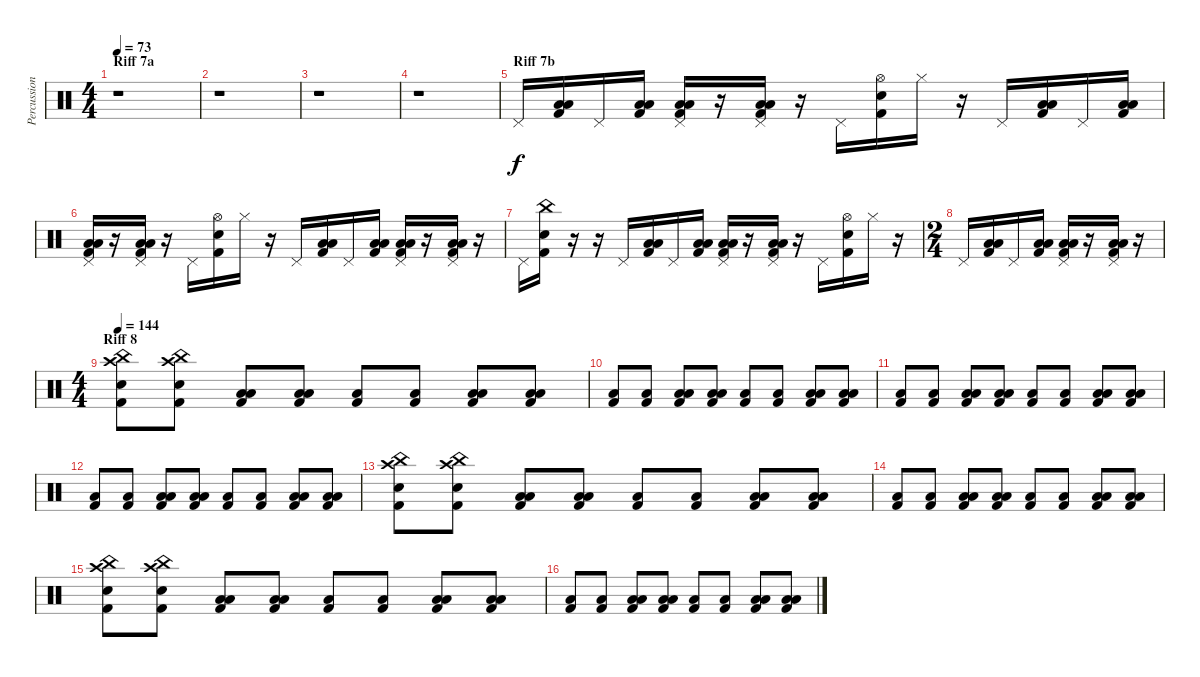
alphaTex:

\track ("Percussion" "Percussion") {instrument percussion}
\staff {score}
\articulation defaults
\ts (4 4)
\section ("" "Riff 7a")
\tempo 73
\clef neutral
\ks c
r.1{dy f} |
r.1 |
r.1 |
r.1 |
\section ("" "Riff 7b")
"Pedal Hi-Hat (hit)".16 ("Low Tom (hit)" "Low Floor Tom (hit)" "Kick (hit) 2").16 "Pedal Hi-Hat (hit)".16 ("Low Tom (hit)" "Low Floor Tom (hit)" "Kick (hit) 2").16 ("Pedal Hi-Hat (hit)" "Low Tom (hit)" "Low Floor Tom (hit)" "Kick (hit) 2").16 r.16 ("Pedal Hi-Hat (hit)" "Low Floor Tom (hit)" "Low Floor Tom (hit)" "Kick (hit) 2").16 r.16 "Pedal Hi-Hat (hit)".16 ("Hi-Hat (open)" "Electric Snare (hit)" "Kick (hit) 2").16 "Hi-Hat (closed)".16 r.16 "Pedal Hi-Hat (hit)".16 ("Low Tom (hit)" "Low Floor Tom (hit)" "Kick (hit) 2").16 "Pedal Hi-Hat (hit)".16 ("Low Floor Tom (hit)" "Low Floor Tom (hit)" "Kick (hit) 2").16 |
("Pedal Hi-Hat (hit)" "Low Tom (hit)" "Low Floor Tom (hit)" "Kick (hit) 2").16 r.16 ("Pedal Hi-Hat (hit)" "Low Tom (hit)" "Low Floor Tom (hit)" "Kick (hit) 2").16 r.16 "Pedal Hi-Hat (hit)".16 ("Hi-Hat (open)" "Electric Snare (hit)" "Kick (hit) 2").16 "Hi-Hat (closed)".16 r.16 "Pedal Hi-Hat (hit)".16 ("Low Tom (hit)" "Low Floor Tom (hit)" "Kick (hit) 2").16 "Pedal Hi-Hat (hit)".16 ("Low Tom (hit)" "Low Floor Tom (hit)" "Kick (hit) 2").16 ("Pedal Hi-Hat (hit)" "Low Tom (hit)" "Low Floor Tom (hit)" "Kick (hit) 2").16 r.16 ("Pedal Hi-Hat (hit)" "Low Tom (hit)" "Low Floor Tom (hit)" "Kick (hit) 2").16 r.16 |
"Pedal Hi-Hat (hit)".16 ("China (hit)" "Electric Snare (hit)" "Kick (hit) 2").16 r.16 r.16 "Pedal Hi-Hat (hit)".16 ("Low Tom (hit)" "Low Floor Tom (hit)" "Kick (hit) 2").16 "Pedal Hi-Hat (hit)".16 ("Low Tom (hit)" "Low Floor Tom (hit)" "Kick (hit) 2").16 ("Pedal Hi-Hat (hit)" "Low Tom (hit)" "Low Floor Tom (hit)" "Kick (hit) 2").16 r.16 ("Pedal Hi-Hat (hit)" "Low Tom (hit)" "Low Floor Tom (hit)" "Kick (hit) 2").16 r.16 "Pedal Hi-Hat (hit)".16 ("Hi-Hat (open)" "Electric Snare (hit)" "Kick (hit) 2").16 "Hi-Hat (closed)".16 r.16 |
\ts (2 4)
"Pedal Hi-Hat (hit)".16 ("Low Tom (hit)" "Low Floor Tom (hit)" "Kick (hit) 2").16 "Pedal Hi-Hat (hit)".16 ("Low Tom (hit)" "Low Floor Tom (hit)" "Kick (hit) 2").16 ("Pedal Hi-Hat (hit)" "Low Tom (hit)" "Low Floor Tom (hit)" "Kick (hit) 2").16 r.16 ("Pedal Hi-Hat (hit)" "Low Tom (hit)" "Low Floor Tom (hit)" "Kick (hit) 2").16 r.16 |
\ts (4 4)
\section ("" "Riff 8")
\tempo 144
("China (hit)" "Crash high (hit)" "Electric Snare (hit)" "Kick (hit) 2").8 ("China (hit)" "Crash high (hit)" "Electric Snare (hit)" "Kick (hit) 2").8 ("Low Tom (hit)" "Low Floor Tom (hit)" "Kick (hit) 2").8 ("Low Tom (hit)" "Low Floor Tom (hit)" "Kick (hit) 2").8 ("Low Floor Tom (hit)" "Kick (hit) 2").8 ("Low Floor Tom (hit)" "Kick (hit) 2").8 ("Low Tom (hit)" "Low Floor Tom (hit)" "Kick (hit) 2").8 ("Low Tom (hit)" "Low Floor Tom (hit)" "Kick (hit) 2").8 |
("Low Floor Tom (hit)" "Kick (hit) 2").8 ("Low Floor Tom (hit)" "Kick (hit) 2").8 ("Low Tom (hit)" "Low Floor Tom (hit)" "Kick (hit) 2").8 ("Low Tom (hit)" "Low Floor Tom (hit)" "Kick (hit) 2").8 ("Low Floor Tom (hit)" "Kick (hit) 2").8 ("Low Floor Tom (hit)" "Kick (hit) 2").8 ("Low Tom (hit)" "Low Floor Tom (hit)" "Kick (hit) 2").8 ("Low Tom (hit)" "Low Floor Tom (hit)" "Kick (hit) 2").8 |
("Low Floor Tom (hit)" "Kick (hit) 2").8 ("Low Floor Tom (hit)" "Kick (hit) 2").8 ("Low Tom (hit)" "Low Floor Tom (hit)" "Kick (hit) 2").8 ("Low Tom (hit)" "Low Floor Tom (hit)" "Kick (hit) 2").8 ("Low Floor Tom (hit)" "Kick (hit) 2").8 ("Low Floor Tom (hit)" "Kick (hit) 2").8 ("Low Tom (hit)" "Low Floor Tom (hit)" "Kick (hit) 2").8 ("Low Tom (hit)" "Low Floor Tom (hit)" "Kick (hit) 2").8 |
("Low Floor Tom (hit)" "Kick (hit) 2").8 ("Low Floor Tom (hit)" "Kick (hit) 2").8 ("Low Tom (hit)" "Low Floor Tom (hit)" "Kick (hit) 2").8 ("Low Tom (hit)" "Low Floor Tom (hit)" "Kick (hit) 2").8 ("Low Floor Tom (hit)" "Kick (hit) 2").8 ("Low Floor Tom (hit)" "Kick (hit) 2").8 ("Low Tom (hit)" "Low Floor Tom (hit)" "Kick (hit) 2").8 ("Low Tom (hit)" "Low Floor Tom (hit)" "Kick (hit) 2").8 |
("China (hit)" "Crash high (hit)" "Electric Snare (hit)" "Kick (hit) 2").8 ("China (hit)" "Crash high (hit)" "Electric Snare (hit)" "Kick (hit) 2").8 ("Low Tom (hit)" "Low Floor Tom (hit)" "Kick (hit) 2").8 ("Low Tom (hit)" "Low Floor Tom (hit)" "Kick (hit) 2").8 ("Low Floor Tom (hit)" "Kick (hit) 2").8 ("Low Floor Tom (hit)" "Kick (hit) 2").8 ("Low Tom (hit)" "Low Floor Tom (hit)" "Kick (hit) 2").8 ("Low Tom (hit)" "Low Floor Tom (hit)" "Kick (hit) 2").8 |
("Low Floor Tom (hit)" "Kick (hit) 2").8 ("Low Floor Tom (hit)" "Kick (hit) 2").8 ("Low Floor Tom (hit)" "Low Floor Tom (hit)" "Kick (hit) 2").8 ("Low Floor Tom (hit)" "Low Floor Tom (hit)" "Kick (hit) 2").8 ("Low Floor Tom (hit)" "Kick (hit) 2").8 ("Low Floor Tom (hit)" "Kick (hit) 2").8 ("Low Tom (hit)" "Low Floor Tom (hit)" "Kick (hit) 2").8 ("Low Tom (hit)" "Low Floor Tom (hit)" "Kick (hit) 2").8 |
("China (hit)" "Crash high (hit)" "Electric Snare (hit)" "Kick (hit) 2").8 ("China (hit)" "Crash high (hit)" "Electric Snare (hit)" "Kick (hit) 2").8 ("Low Tom (hit)" "Low Floor Tom (hit)" "Kick (hit) 2").8 ("Low Tom (hit)" "Low Floor Tom (hit)" "Kick (hit) 2").8 ("Low Floor Tom (hit)" "Kick (hit) 2").8 ("Low Floor Tom (hit)" "Kick (hit) 2").8 ("Low Tom (hit)" "Low Floor Tom (hit)" "Kick (hit) 2").8 ("Low Tom (hit)" "Low Floor Tom (hit)" "Kick (hit) 2").8 |
("Low Floor Tom (hit)" "Kick (hit) 2").8 ("Low Floor Tom (hit)" "Kick (hit) 2").8 ("Low Floor Tom (hit)" "Low Floor Tom (hit)" "Kick (hit) 2").8 ("Low Floor Tom (hit)" "Low Floor Tom (hit)" "Kick (hit) 2").8 ("Low Floor Tom (hit)" "Kick (hit) 2").8 ("Low Floor Tom (hit)" "Kick (hit) 2").8 ("Low Tom (hit)" "Low Floor Tom (hit)" "Kick (hit) 2").8 ("Low Tom (hit)" "Low Floor Tom (hit)" "Kick (hit) 2").8
